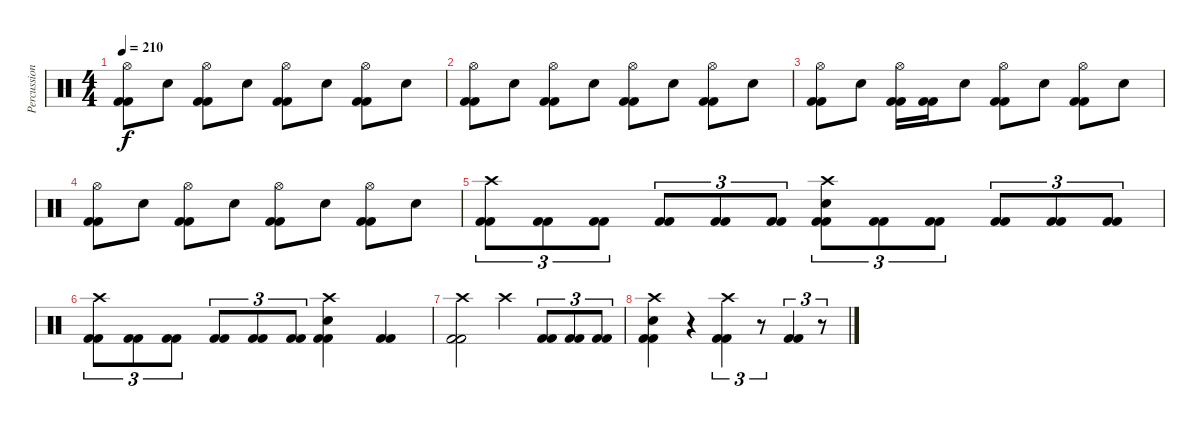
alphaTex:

\track ("Percussion" "Percussion") {instrument percussion}
\staff {score}
\articulation defaults
\ts (4 4)
\tempo 210
\clef neutral
\ks c
("Hi-Hat (open)" "Kick (hit) 2" "Kick (hit) 2").8{dy f} "Electric Snare (hit)".8 ("Hi-Hat (open)" "Kick (hit) 2" "Kick (hit) 2").8 "Electric Snare (hit)".8 ("Hi-Hat (open)" "Kick (hit) 2" "Kick (hit) 2").8 "Electric Snare (hit)".8 ("Hi-Hat (open)" "Kick (hit) 2" "Kick (hit) 2").8 "Electric Snare (hit)".8 |
("Hi-Hat (open)" "Kick (hit) 2" "Kick (hit) 2").8 "Electric Snare (hit)".8 ("Hi-Hat (open)" "Kick (hit) 2" "Kick (hit) 2").8 "Electric Snare (hit)".8 ("Hi-Hat (open)" "Kick (hit) 2" "Kick (hit) 2").8 "Electric Snare (hit)".8 ("Hi-Hat (open)" "Kick (hit) 2" "Kick (hit) 2").8 "Electric Snare (hit)".8 |
("Hi-Hat (open)" "Kick (hit) 2" "Kick (hit) 2").8 "Electric Snare (hit)".8 ("Hi-Hat (open)" "Kick (hit) 2" "Kick (hit) 2").16 ("Kick (hit) 2" "Kick (hit) 2").16 "Electric Snare (hit)".8 ("Hi-Hat (open)" "Kick (hit) 2" "Kick (hit) 2").8 "Electric Snare (hit)".8 ("Hi-Hat (open)" "Kick (hit) 2" "Kick (hit) 2").8 "Electric Snare (hit)".8 |
("Hi-Hat (open)" "Kick (hit) 2" "Kick (hit) 2").8 "Electric Snare (hit)".8 ("Hi-Hat (open)" "Kick (hit) 2" "Kick (hit) 2").8 "Electric Snare (hit)".8 ("Hi-Hat (open)" "Kick (hit) 2" "Kick (hit) 2").8 "Electric Snare (hit)".8 ("Hi-Hat (open)" "Kick (hit) 2" "Kick (hit) 2").8 "Electric Snare (hit)".8 |
("Crash high (hit)" "Kick (hit) 2" "Kick (hit) 2").8{tu (3 2)} ("Kick (hit) 2" "Kick (hit) 2").8{tu (3 2)} ("Kick (hit) 2" "Kick (hit) 2").8{tu (3 2)} ("Kick (hit) 2" "Kick (hit) 2").8{tu (3 2)} ("Kick (hit) 2" "Kick (hit) 2").8{tu (3 2)} ("Kick (hit) 2" "Kick (hit) 2").8{tu (3 2)} ("Crash high (hit)" "Electric Snare (hit)" "Kick (hit) 2" "Kick (hit) 2").8{tu (3 2)} ("Kick (hit) 2" "Kick (hit) 2").8{tu (3 2)} ("Kick (hit) 2" "Kick (hit) 2").8{tu (3 2)} ("Kick (hit) 2" "Kick (hit) 2").8{tu (3 2)} ("Kick (hit) 2" "Kick (hit) 2").8{tu (3 2)} ("Kick (hit) 2" "Kick (hit) 2").8{tu (3 2)} |
("Crash high (hit)" "Kick (hit) 2" "Kick (hit) 2").8{tu (3 2)} ("Kick (hit) 2" "Kick (hit) 2").8{tu (3 2)} ("Kick (hit) 2" "Kick (hit) 2").8{tu (3 2)} ("Kick (hit) 2" "Kick (hit) 2").8{tu (3 2)} ("Kick (hit) 2" "Kick (hit) 2").8{tu (3 2)} ("Kick (hit) 2" "Kick (hit) 2").8{tu (3 2)} ("Crash high (hit)" "Electric Snare (hit)" "Kick (hit) 2" "Kick (hit) 2").4 ("Kick (hit) 2" "Kick (hit) 2").4 |
("Crash high (hit)" "Kick (hit) 2" "Kick (hit) 2").2 "Crash high (hit)".4 ("Kick (hit) 2" "Kick (hit) 2").8{tu (3 2)} ("Kick (hit) 2" "Kick (hit) 2").8{tu (3 2)} ("Kick (hit) 2" "Kick (hit) 2").8{tu (3 2)} |
("Crash high (hit)" "Electric Snare (hit)" "Kick (hit) 2" "Kick (hit) 2").4 r.4 ("Crash high (hit)" "Kick (hit) 2" "Kick (hit) 2").4{tu (3 2)} r.8{tu (3 2)} ("Kick (hit) 2" "Kick (hit) 2").4{tu (3 2)} r.8{tu (3 2)}
